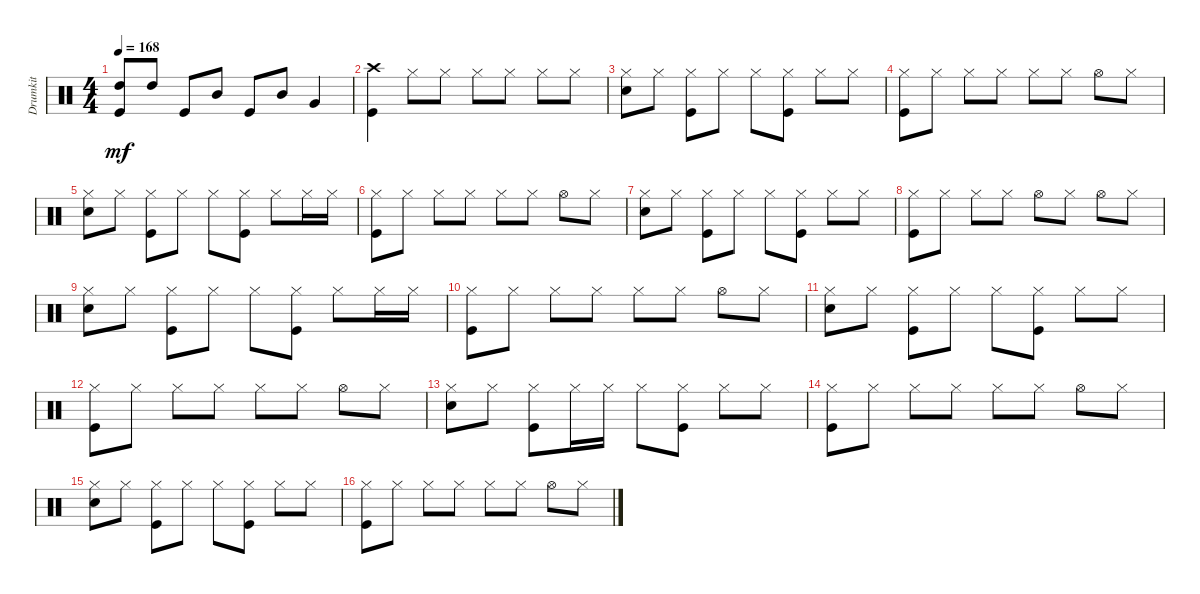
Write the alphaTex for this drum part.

\track ("Drumkit" "Drumkit") {instrument percussion}
\staff {score}
\articulation defaults
\ts (4 4)
\tempo 168
\clef neutral
\ks c
("High Tom (hit)" "Kick (hit)").8{dy mf} "High Tom (hit)".8 "Kick (hit)".8 "Mid Tom (hit)".8 "Kick (hit)".8 "Mid Tom (hit)".8 "Very Low Tom (hit)".4 |
("Kick (hit)" "Crash high (hit)").4 "Hi-Hat (closed)".8 "Hi-Hat (closed)".8 "Hi-Hat (closed)".8 "Hi-Hat (closed)".8 "Hi-Hat (closed)".8 "Hi-Hat (closed)".8 |
("Hi-Hat (closed)" "Snare (hit) 2").8 "Hi-Hat (closed)".8 ("Hi-Hat (closed)" "Kick (hit)").8 "Hi-Hat (closed)".8 "Hi-Hat (closed)".8 ("Hi-Hat (closed)" "Kick (hit)").8 "Hi-Hat (closed)".8 "Hi-Hat (closed)".8 |
("Kick (hit)" "Hi-Hat (closed)").8 "Hi-Hat (closed)".8 "Hi-Hat (closed)".8 "Hi-Hat (closed)".8 "Hi-Hat (closed)".8 "Hi-Hat (closed)".8 "Hi-Hat (open)".8 "Hi-Hat (closed)".8 |
("Hi-Hat (closed)" "Snare (hit) 2").8 "Hi-Hat (closed)".8 ("Hi-Hat (closed)" "Kick (hit)").8 "Hi-Hat (closed)".8 "Hi-Hat (closed)".8 ("Hi-Hat (closed)" "Kick (hit)").8 "Hi-Hat (closed)".8 "Hi-Hat (closed)".16 "Hi-Hat (closed)".16 |
("Kick (hit)" "Hi-Hat (closed)").8 "Hi-Hat (closed)".8 "Hi-Hat (closed)".8 "Hi-Hat (closed)".8 "Hi-Hat (closed)".8 "Hi-Hat (closed)".8 "Hi-Hat (open)".8 "Hi-Hat (closed)".8 |
("Hi-Hat (closed)" "Snare (hit) 2").8 "Hi-Hat (closed)".8 ("Hi-Hat (closed)" "Kick (hit)").8 "Hi-Hat (closed)".8 "Hi-Hat (closed)".8 ("Hi-Hat (closed)" "Kick (hit)").8 "Hi-Hat (closed)".8 "Hi-Hat (closed)".8 |
("Kick (hit)" "Hi-Hat (closed)").8 "Hi-Hat (closed)".8 "Hi-Hat (closed)".8 "Hi-Hat (closed)".8 "Hi-Hat (open)".8 "Hi-Hat (closed)".8 "Hi-Hat (open)".8 "Hi-Hat (closed)".8 |
("Hi-Hat (closed)" "Snare (hit) 2").8 "Hi-Hat (closed)".8 ("Hi-Hat (closed)" "Kick (hit)").8 "Hi-Hat (closed)".8 "Hi-Hat (closed)".8 ("Hi-Hat (closed)" "Kick (hit)").8 "Hi-Hat (closed)".8 "Hi-Hat (closed)".16 "Hi-Hat (closed)".16 |
("Kick (hit)" "Hi-Hat (closed)").8 "Hi-Hat (closed)".8 "Hi-Hat (closed)".8 "Hi-Hat (closed)".8 "Hi-Hat (closed)".8 "Hi-Hat (closed)".8 "Hi-Hat (open)".8 "Hi-Hat (closed)".8 |
("Hi-Hat (closed)" "Snare (hit) 2").8 "Hi-Hat (closed)".8 ("Hi-Hat (closed)" "Kick (hit)").8 "Hi-Hat (closed)".8 "Hi-Hat (closed)".8 ("Hi-Hat (closed)" "Kick (hit)").8 "Hi-Hat (closed)".8 "Hi-Hat (closed)".8 |
("Kick (hit)" "Hi-Hat (closed)").8 "Hi-Hat (closed)".8 "Hi-Hat (closed)".8 "Hi-Hat (closed)".8 "Hi-Hat (closed)".8 "Hi-Hat (closed)".8 "Hi-Hat (open)".8 "Hi-Hat (closed)".8 |
("Hi-Hat (closed)" "Snare (hit) 2").8 "Hi-Hat (closed)".8 ("Hi-Hat (closed)" "Kick (hit)").8 "Hi-Hat (closed)".16 "Hi-Hat (closed)".16 "Hi-Hat (closed)".8 ("Hi-Hat (closed)" "Kick (hit)").8 "Hi-Hat (closed)".8 "Hi-Hat (closed)".8 |
("Kick (hit)" "Hi-Hat (closed)").8 "Hi-Hat (closed)".8 "Hi-Hat (closed)".8 "Hi-Hat (closed)".8 "Hi-Hat (closed)".8 "Hi-Hat (closed)".8 "Hi-Hat (open)".8 "Hi-Hat (closed)".8 |
("Hi-Hat (closed)" "Snare (hit) 2").8 "Hi-Hat (closed)".8 ("Hi-Hat (closed)" "Kick (hit)").8 "Hi-Hat (closed)".8 "Hi-Hat (closed)".8 ("Hi-Hat (closed)" "Kick (hit)").8 "Hi-Hat (closed)".8 "Hi-Hat (closed)".8 |
("Kick (hit)" "Hi-Hat (closed)").8 "Hi-Hat (closed)".8 "Hi-Hat (closed)".8 "Hi-Hat (closed)".8 "Hi-Hat (closed)".8 "Hi-Hat (closed)".8 "Hi-Hat (open)".8 "Hi-Hat (closed)".8
